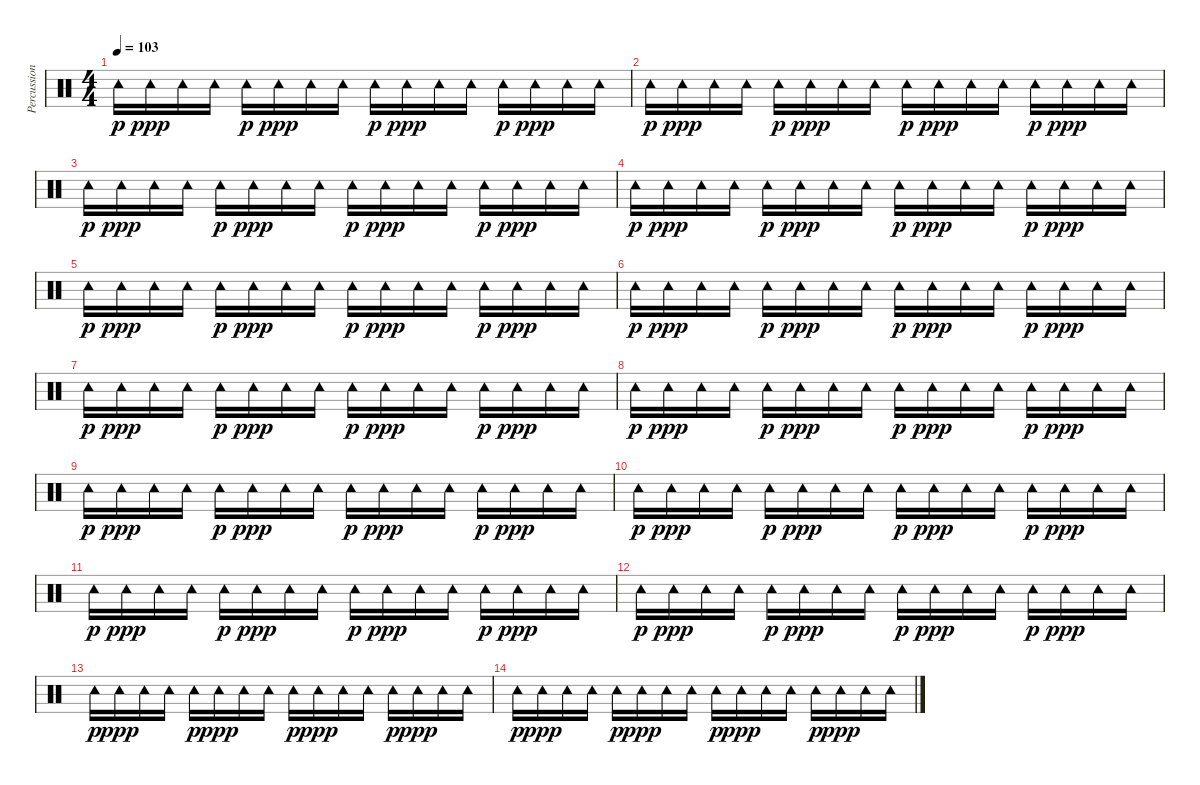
\track ("Percussions 2" "Percussion") {instrument percussion}
\staff {score}
\articulation defaults
\ts (4 4)
\tempo 103
\clef neutral
\ks c "Tambourine (hit)".16{dy p} "Tambourine (hit)".16{dy ppp} "Tambourine (hit)".16 "Tambourine (hit)".16 "Tambourine (hit)".16{dy p} "Tambourine (hit)".16{dy ppp} "Tambourine (hit)".16 "Tambourine (hit)".16 "Tambourine (hit)".16{dy p} "Tambourine (hit)".16{dy ppp} "Tambourine (hit)".16 "Tambourine (hit)".16 "Tambourine (hit)".16{dy p} "Tambourine (hit)".16{dy ppp} "Tambourine (hit)".16 "Tambourine (hit)".16
|
"Tambourine (hit)".16{dy p} "Tambourine (hit)".16{dy ppp} "Tambourine (hit)".16 "Tambourine (hit)".16 "Tambourine (hit)".16{dy p} "Tambourine (hit)".16{dy ppp} "Tambourine (hit)".16 "Tambourine (hit)".16 "Tambourine (hit)".16{dy p} "Tambourine (hit)".16{dy ppp} "Tambourine (hit)".16 "Tambourine (hit)".16 "Tambourine (hit)".16{dy p} "Tambourine (hit)".16{dy ppp} "Tambourine (hit)".16 "Tambourine (hit)".16 |
"Tambourine (hit)".16{dy p} "Tambourine (hit)".16{dy ppp} "Tambourine (hit)".16 "Tambourine (hit)".16 "Tambourine (hit)".16{dy p} "Tambourine (hit)".16{dy ppp} "Tambourine (hit)".16 "Tambourine (hit)".16 "Tambourine (hit)".16{dy p} "Tambourine (hit)".16{dy ppp} "Tambourine (hit)".16 "Tambourine (hit)".16 "Tambourine (hit)".16{dy p} "Tambourine (hit)".16{dy ppp} "Tambourine (hit)".16 "Tambourine (hit)".16 |
"Tambourine (hit)".16{dy p} "Tambourine (hit)".16{dy ppp} "Tambourine (hit)".16 "Tambourine (hit)".16 "Tambourine (hit)".16{dy p} "Tambourine (hit)".16{dy ppp} "Tambourine (hit)".16 "Tambourine (hit)".16 "Tambourine (hit)".16{dy p} "Tambourine (hit)".16{dy ppp} "Tambourine (hit)".16 "Tambourine (hit)".16 "Tambourine (hit)".16{dy p} "Tambourine (hit)".16{dy ppp} "Tambourine (hit)".16 "Tambourine (hit)".16 |
"Tambourine (hit)".16{dy p} "Tambourine (hit)".16{dy ppp} "Tambourine (hit)".16 "Tambourine (hit)".16 "Tambourine (hit)".16{dy p} "Tambourine (hit)".16{dy ppp} "Tambourine (hit)".16 "Tambourine (hit)".16 "Tambourine (hit)".16{dy p} "Tambourine (hit)".16{dy ppp} "Tambourine (hit)".16 "Tambourine (hit)".16 "Tambourine (hit)".16{dy p} "Tambourine (hit)".16{dy ppp} "Tambourine (hit)".16 "Tambourine (hit)".16 |
"Tambourine (hit)".16{dy p} "Tambourine (hit)".16{dy ppp} "Tambourine (hit)".16 "Tambourine (hit)".16 "Tambourine (hit)".16{dy p} "Tambourine (hit)".16{dy ppp} "Tambourine (hit)".16 "Tambourine (hit)".16 "Tambourine (hit)".16{dy p} "Tambourine (hit)".16{dy ppp} "Tambourine (hit)".16 "Tambourine (hit)".16 "Tambourine (hit)".16{dy p} "Tambourine (hit)".16{dy ppp} "Tambourine (hit)".16 "Tambourine (hit)".16 |
"Tambourine (hit)".16{dy p} "Tambourine (hit)".16{dy ppp} "Tambourine (hit)".16 "Tambourine (hit)".16 "Tambourine (hit)".16{dy p} "Tambourine (hit)".16{dy ppp} "Tambourine (hit)".16 "Tambourine (hit)".16 "Tambourine (hit)".16{dy p} "Tambourine (hit)".16{dy ppp} "Tambourine (hit)".16 "Tambourine (hit)".16 "Tambourine (hit)".16{dy p} "Tambourine (hit)".16{dy ppp} "Tambourine (hit)".16 "Tambourine (hit)".16 |
"Tambourine (hit)".16{dy p} "Tambourine (hit)".16{dy ppp} "Tambourine (hit)".16 "Tambourine (hit)".16 "Tambourine (hit)".16{dy p} "Tambourine (hit)".16{dy ppp} "Tambourine (hit)".16 "Tambourine (hit)".16 "Tambourine (hit)".16{dy p} "Tambourine (hit)".16{dy ppp} "Tambourine (hit)".16 "Tambourine (hit)".16 "Tambourine (hit)".16{dy p} "Tambourine (hit)".16{dy ppp} "Tambourine (hit)".16 "Tambourine (hit)".16 |
"Tambourine (hit)".16{dy p} "Tambourine (hit)".16{dy ppp} "Tambourine (hit)".16 "Tambourine (hit)".16 "Tambourine (hit)".16{dy p} "Tambourine (hit)".16{dy ppp} "Tambourine (hit)".16 "Tambourine (hit)".16 "Tambourine (hit)".16{dy p} "Tambourine (hit)".16{dy ppp} "Tambourine (hit)".16 "Tambourine (hit)".16 "Tambourine (hit)".16{dy p} "Tambourine (hit)".16{dy ppp} "Tambourine (hit)".16 "Tambourine (hit)".16 |
"Tambourine (hit)".16{dy p} "Tambourine (hit)".16{dy ppp} "Tambourine (hit)".16 "Tambourine (hit)".16 "Tambourine (hit)".16{dy p} "Tambourine (hit)".16{dy ppp} "Tambourine (hit)".16 "Tambourine (hit)".16 "Tambourine (hit)".16{dy p} "Tambourine (hit)".16{dy ppp} "Tambourine (hit)".16 "Tambourine (hit)".16 "Tambourine (hit)".16{dy p} "Tambourine (hit)".16{dy ppp} "Tambourine (hit)".16 "Tambourine (hit)".16 |
"Tambourine (hit)".16{dy p} "Tambourine (hit)".16{dy ppp} "Tambourine (hit)".16 "Tambourine (hit)".16 "Tambourine (hit)".16{dy p} "Tambourine (hit)".16{dy ppp} "Tambourine (hit)".16 "Tambourine (hit)".16 "Tambourine (hit)".16{dy p} "Tambourine (hit)".16{dy ppp} "Tambourine (hit)".16 "Tambourine (hit)".16 "Tambourine (hit)".16{dy p} "Tambourine (hit)".16{dy ppp} "Tambourine (hit)".16 "Tambourine (hit)".16 |
"Tambourine (hit)".16{dy p} "Tambourine (hit)".16{dy ppp} "Tambourine (hit)".16 "Tambourine (hit)".16 "Tambourine (hit)".16{dy p} "Tambourine (hit)".16{dy ppp} "Tambourine (hit)".16 "Tambourine (hit)".16 "Tambourine (hit)".16{dy p} "Tambourine (hit)".16{dy ppp} "Tambourine (hit)".16 "Tambourine (hit)".16 "Tambourine (hit)".16{dy p} "Tambourine (hit)".16{dy ppp} "Tambourine (hit)".16 "Tambourine (hit)".16 |
"Tambourine (hit)".16{dy p} "Tambourine (hit)".16{dy ppp} "Tambourine (hit)".16 "Tambourine (hit)".16 "Tambourine (hit)".16{dy p} "Tambourine (hit)".16{dy ppp} "Tambourine (hit)".16 "Tambourine (hit)".16 "Tambourine (hit)".16{dy p} "Tambourine (hit)".16{dy ppp} "Tambourine (hit)".16 "Tambourine (hit)".16 "Tambourine (hit)".16{dy p} "Tambourine (hit)".16{dy ppp} "Tambourine (hit)".16 "Tambourine (hit)".16 |
"Tambourine (hit)".16{dy p} "Tambourine (hit)".16{dy ppp} "Tambourine (hit)".16 "Tambourine (hit)".16 "Tambourine (hit)".16{dy p} "Tambourine (hit)".16{dy ppp} "Tambourine (hit)".16 "Tambourine (hit)".16 "Tambourine (hit)".16{dy p} "Tambourine (hit)".16{dy ppp} "Tambourine (hit)".16 "Tambourine (hit)".16 "Tambourine (hit)".16{dy p} "Tambourine (hit)".16{dy ppp} "Tambourine (hit)".16 "Tambourine (hit)".16
